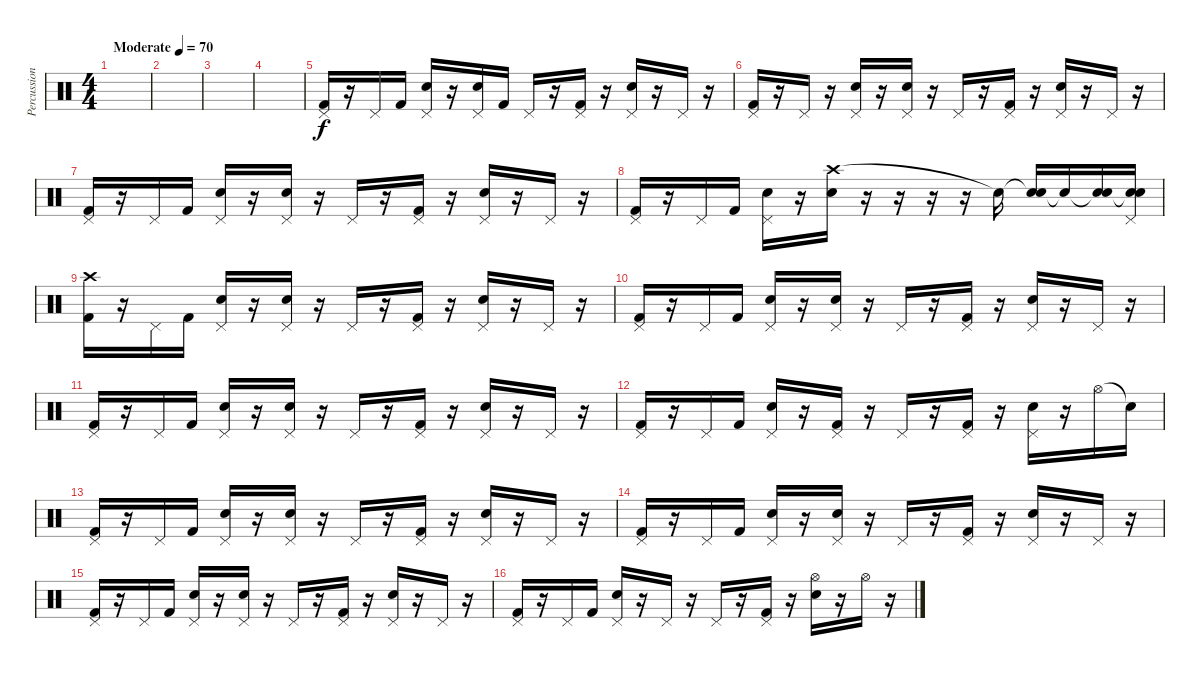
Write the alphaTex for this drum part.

\track ("Percussion" "Percussion") {instrument percussion}
\staff {score}
\articulation defaults
\ts (4 4)
\tempo (70 "Moderate")
\clef neutral
\ks c
|
|
|
|
("Pedal Hi-Hat (hit)" "Kick (hit) 2").16 r.16 "Pedal Hi-Hat (hit)".16 "Kick (hit) 2".16 ("Pedal Hi-Hat (hit)" "Electric Snare (hit)").16 r.16 ("Pedal Hi-Hat (hit)" "Electric Snare (hit)").16 "Kick (hit) 2".16 "Pedal Hi-Hat (hit)".16 r.16 ("Pedal Hi-Hat (hit)" "Kick (hit) 2").16 r.16 ("Pedal Hi-Hat (hit)" "Electric Snare (hit)").16 r.16 "Pedal Hi-Hat (hit)".16 r.16 |
("Pedal Hi-Hat (hit)" "Kick (hit) 2").16 r.16 "Pedal Hi-Hat (hit)".16 r.16 ("Pedal Hi-Hat (hit)" "Electric Snare (hit)").16 r.16 ("Pedal Hi-Hat (hit)" "Electric Snare (hit)").16 r.16 "Pedal Hi-Hat (hit)".16 r.16 ("Pedal Hi-Hat (hit)" "Kick (hit) 2").16 r.16 ("Pedal Hi-Hat (hit)" "Electric Snare (hit)").16 r.16 "Pedal Hi-Hat (hit)".16 r.16 |
("Pedal Hi-Hat (hit)" "Kick (hit) 2").16 r.16 "Pedal Hi-Hat (hit)".16 "Kick (hit) 2".16 ("Pedal Hi-Hat (hit)" "Electric Snare (hit)").16 r.16 ("Pedal Hi-Hat (hit)" "Electric Snare (hit)").16 r.16 "Pedal Hi-Hat (hit)".16 r.16 ("Pedal Hi-Hat (hit)" "Kick (hit) 2").16 r.16 ("Pedal Hi-Hat (hit)" "Electric Snare (hit)").16 r.16 "Pedal Hi-Hat (hit)".16 r.16 |
("Pedal Hi-Hat (hit)" "Kick (hit) 2").16 r.16 "Pedal Hi-Hat (hit)".16 "Kick (hit) 2".16 ("Pedal Hi-Hat (hit)" "Electric Snare (hit)").16 r.16 ("Crash high (hit)" "Electric Snare (hit)").16 r.16 r.16 r.16 r.16 "Snare (hit)"{t}.16 ("Snare (hit)"{t} "Electric Snare (hit)").16 "Snare (hit)"{t}.16 ("Snare (hit)"{t} "Electric Snare (hit)").16 ("Pedal Hi-Hat (hit)" "Snare (hit)"{t} "Electric Snare (hit)").16 |
("Crash high (hit)" "Kick (hit) 2").16 r.16 "Pedal Hi-Hat (hit)".16 "Kick (hit) 2".16 ("Pedal Hi-Hat (hit)" "Electric Snare (hit)").16 r.16 ("Pedal Hi-Hat (hit)" "Electric Snare (hit)").16 r.16 "Pedal Hi-Hat (hit)".16 r.16 ("Pedal Hi-Hat (hit)" "Kick (hit) 2").16 r.16 ("Pedal Hi-Hat (hit)" "Electric Snare (hit)").16 r.16 "Pedal Hi-Hat (hit)".16 r.16 |
("Pedal Hi-Hat (hit)" "Kick (hit) 2").16 r.16 "Pedal Hi-Hat (hit)".16 "Kick (hit) 2".16 ("Pedal Hi-Hat (hit)" "Electric Snare (hit)").16 r.16 ("Pedal Hi-Hat (hit)" "Electric Snare (hit)").16 r.16 "Pedal Hi-Hat (hit)".16 r.16 ("Pedal Hi-Hat (hit)" "Kick (hit) 2").16 r.16 ("Pedal Hi-Hat (hit)" "Electric Snare (hit)").16 r.16 "Pedal Hi-Hat (hit)".16 r.16 |
("Pedal Hi-Hat (hit)" "Kick (hit) 2").16 r.16 "Pedal Hi-Hat (hit)".16 "Kick (hit) 2".16 ("Pedal Hi-Hat (hit)" "Electric Snare (hit)").16 r.16 ("Pedal Hi-Hat (hit)" "Electric Snare (hit)").16 r.16 "Pedal Hi-Hat (hit)".16 r.16 ("Pedal Hi-Hat (hit)" "Kick (hit) 2").16 r.16 ("Pedal Hi-Hat (hit)" "Electric Snare (hit)").16 r.16 "Pedal Hi-Hat (hit)".16 r.16 |
("Pedal Hi-Hat (hit)" "Kick (hit) 2").16 r.16 "Pedal Hi-Hat (hit)".16 "Kick (hit) 2".16 ("Pedal Hi-Hat (hit)" "Electric Snare (hit)").16 r.16 ("Pedal Hi-Hat (hit)" "Kick (hit) 2").16 r.16 "Pedal Hi-Hat (hit)".16 r.16 ("Pedal Hi-Hat (hit)" "Kick (hit) 2").16 r.16 ("Pedal Hi-Hat (hit)" "Electric Snare (hit)").16 r.16 "Hi-Hat (open)".16 "Snare (hit)"{t}.16 |
("Pedal Hi-Hat (hit)" "Kick (hit) 2").16 r.16 "Pedal Hi-Hat (hit)".16 "Kick (hit) 2".16 ("Pedal Hi-Hat (hit)" "Electric Snare (hit)").16 r.16 ("Pedal Hi-Hat (hit)" "Electric Snare (hit)").16 r.16 "Pedal Hi-Hat (hit)".16 r.16 ("Pedal Hi-Hat (hit)" "Kick (hit) 2").16 r.16 ("Pedal Hi-Hat (hit)" "Electric Snare (hit)").16 r.16 "Pedal Hi-Hat (hit)".16 r.16 |
("Pedal Hi-Hat (hit)" "Kick (hit) 2").16 r.16 "Pedal Hi-Hat (hit)".16 "Kick (hit) 2".16 ("Pedal Hi-Hat (hit)" "Electric Snare (hit)").16 r.16 ("Pedal Hi-Hat (hit)" "Electric Snare (hit)").16 r.16 "Pedal Hi-Hat (hit)".16 r.16 ("Pedal Hi-Hat (hit)" "Kick (hit) 2").16 r.16 ("Pedal Hi-Hat (hit)" "Electric Snare (hit)").16 r.16 "Pedal Hi-Hat (hit)".16 r.16 |
("Pedal Hi-Hat (hit)" "Kick (hit) 2").16 r.16 "Pedal Hi-Hat (hit)".16 "Kick (hit) 2".16 ("Pedal Hi-Hat (hit)" "Electric Snare (hit)").16 r.16 ("Pedal Hi-Hat (hit)" "Electric Snare (hit)").16 r.16 "Pedal Hi-Hat (hit)".16 r.16 ("Pedal Hi-Hat (hit)" "Kick (hit) 2").16 r.16 ("Pedal Hi-Hat (hit)" "Electric Snare (hit)").16 r.16 "Pedal Hi-Hat (hit)".16 r.16 |
("Pedal Hi-Hat (hit)" "Kick (hit) 2").16 r.16 "Pedal Hi-Hat (hit)".16 "Kick (hit) 2".16 ("Pedal Hi-Hat (hit)" "Electric Snare (hit)").16 r.16 "Pedal Hi-Hat (hit)".16 r.16 "Pedal Hi-Hat (hit)".16 r.16 ("Pedal Hi-Hat (hit)" "Kick (hit) 2").16 r.16 ("Hi-Hat (open)" "Electric Snare (hit)").16 r.16 "Hi-Hat (open)".16 r.16
